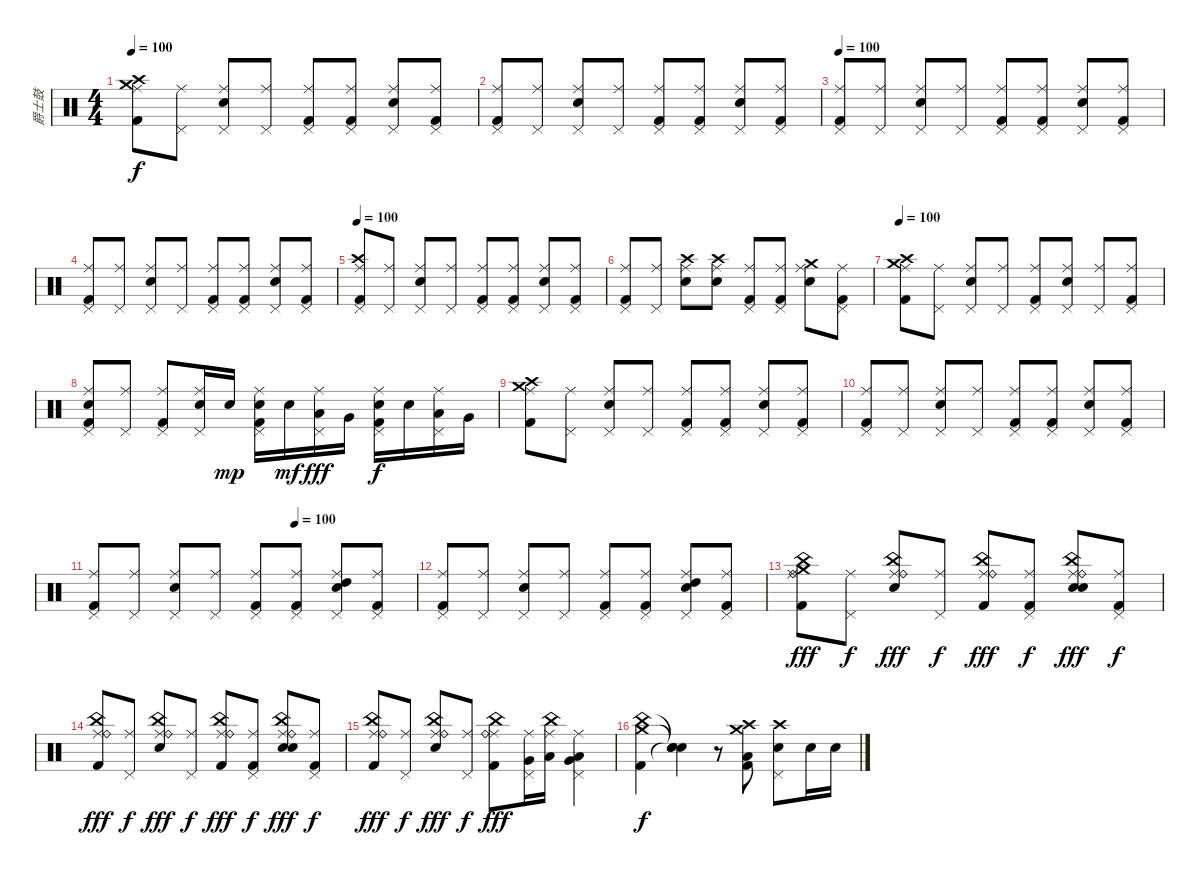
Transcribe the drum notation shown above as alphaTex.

\track ("爵士鼓" "爵士鼓") {instrument percussion}
\staff {score}
\articulation defaults
\ts (4 4)
\tempo 100
\clef neutral
\ks c
("Crash medium (hit)" "Ride (middle)" "Crash high (hit)" "Kick (hit) 2").8{dy f} ("Pedal Hi-Hat (hit)" "Ride (middle)").8 ("Pedal Hi-Hat (hit)" "Ride (middle)" "Snare (hit) 2").8 ("Pedal Hi-Hat (hit)" "Ride (middle)").8 ("Pedal Hi-Hat (hit)" "Ride (middle)" "Kick (hit) 2").8 ("Pedal Hi-Hat (hit)" "Ride (middle)" "Kick (hit) 2").8 ("Pedal Hi-Hat (hit)" "Ride (middle)" "Snare (hit) 2").8 ("Pedal Hi-Hat (hit)" "Ride (middle)" "Kick (hit) 2").8 |
("Pedal Hi-Hat (hit)" "Ride (middle)" "Kick (hit) 2").8 ("Pedal Hi-Hat (hit)" "Ride (middle)").8 ("Pedal Hi-Hat (hit)" "Ride (middle)" "Snare (hit) 2").8 ("Pedal Hi-Hat (hit)" "Ride (middle)").8 ("Pedal Hi-Hat (hit)" "Ride (middle)" "Kick (hit) 2").8 ("Pedal Hi-Hat (hit)" "Ride (middle)" "Kick (hit) 2").8 ("Pedal Hi-Hat (hit)" "Ride (middle)" "Snare (hit) 2").8 ("Pedal Hi-Hat (hit)" "Ride (middle)" "Kick (hit) 2").8 |
\tempo 100
("Pedal Hi-Hat (hit)" "Ride (middle)" "Kick (hit) 2").8 ("Pedal Hi-Hat (hit)" "Ride (middle)").8 ("Pedal Hi-Hat (hit)" "Ride (middle)" "Snare (hit) 2").8 ("Pedal Hi-Hat (hit)" "Ride (middle)").8 ("Pedal Hi-Hat (hit)" "Ride (middle)" "Kick (hit) 2").8 ("Pedal Hi-Hat (hit)" "Ride (middle)" "Kick (hit) 2").8 ("Pedal Hi-Hat (hit)" "Ride (middle)" "Snare (hit) 2").8 ("Pedal Hi-Hat (hit)" "Ride (middle)" "Kick (hit) 2").8 |
("Pedal Hi-Hat (hit)" "Ride (middle)" "Kick (hit) 2").8 ("Pedal Hi-Hat (hit)" "Ride (middle)").8 ("Pedal Hi-Hat (hit)" "Ride (middle)" "Snare (hit) 2").8 ("Pedal Hi-Hat (hit)" "Ride (middle)").8 ("Pedal Hi-Hat (hit)" "Ride (middle)" "Kick (hit) 2").8 ("Pedal Hi-Hat (hit)" "Ride (middle)" "Kick (hit) 2").8 ("Pedal Hi-Hat (hit)" "Ride (middle)" "Snare (hit) 2").8 ("Pedal Hi-Hat (hit)" "Ride (middle)" "Kick (hit) 2").8 |
\tempo 100
("Pedal Hi-Hat (hit)" "Ride (middle)" "Crash high (hit)" "Kick (hit) 2").8 ("Pedal Hi-Hat (hit)" "Ride (middle)").8 ("Pedal Hi-Hat (hit)" "Ride (middle)" "Snare (hit) 2").8 ("Pedal Hi-Hat (hit)" "Ride (middle)").8 ("Pedal Hi-Hat (hit)" "Ride (middle)" "Kick (hit) 2").8 ("Pedal Hi-Hat (hit)" "Ride (middle)" "Kick (hit) 2").8 ("Pedal Hi-Hat (hit)" "Ride (middle)" "Snare (hit) 2").8 ("Pedal Hi-Hat (hit)" "Ride (middle)" "Kick (hit) 2").8 |
("Pedal Hi-Hat (hit)" "Ride (middle)" "Kick (hit) 2").8 ("Pedal Hi-Hat (hit)" "Ride (middle)").8 ("Crash high (hit)" "Ride (middle)" "Snare (hit) 2").8 ("Crash high (hit)" "Ride (middle)" "Snare (hit) 2").8 ("Pedal Hi-Hat (hit)" "Ride (middle)" "Kick (hit) 2").8 ("Pedal Hi-Hat (hit)" "Ride (middle)" "Kick (hit) 2").8 ("Crash medium (hit)" "Ride (middle)" "Snare (hit) 2").8 ("Pedal Hi-Hat (hit)" "Ride (middle)" "Kick (hit) 2").8 |
\tempo 100
("Crash medium (hit)" "Ride (middle)" "Crash high (hit)" "Kick (hit) 2").8 ("Pedal Hi-Hat (hit)" "Ride (middle)").8 ("Pedal Hi-Hat (hit)" "Ride (middle)" "Snare (hit) 2").8 ("Pedal Hi-Hat (hit)" "Ride (middle)").8 ("Pedal Hi-Hat (hit)" "Ride (middle)" "Kick (hit) 2").8 ("Pedal Hi-Hat (hit)" "Ride (middle)" "Snare (hit) 2").8 ("Pedal Hi-Hat (hit)" "Ride (middle)").8 ("Pedal Hi-Hat (hit)" "Ride (middle)" "Kick (hit) 2").8 |
("Pedal Hi-Hat (hit)" "Ride (middle)" "Snare (hit) 2" "Kick (hit) 2").8 ("Pedal Hi-Hat (hit)" "Ride (middle)").8 ("Pedal Hi-Hat (hit)" "Ride (middle)" "Kick (hit) 2").8 ("Pedal Hi-Hat (hit)" "Ride (middle)" "Electric Snare (hit)").16 "Electric Snare (hit)".16{dy mp} ("Pedal Hi-Hat (hit)" "Ride (middle)" "Electric Snare (hit)" "Kick (hit) 2").16 "Electric Snare (hit)".16{dy mf} ("Pedal Hi-Hat (hit)" "Ride (middle)" "Low Tom (hit)").16{dy fff} "Very Low Tom (hit)".16 ("Pedal Hi-Hat (hit)" "Ride (middle)" "Electric Snare (hit)" "Kick (hit) 2").16{dy f} "Electric Snare (hit)".16 ("Pedal Hi-Hat (hit)" "Ride (middle)" "Low Tom (hit)").16 "Very Low Tom (hit)".16 |
("Crash medium (hit)" "Ride (middle)" "Crash high (hit)" "Kick (hit) 2").8 ("Pedal Hi-Hat (hit)" "Ride (middle)").8 ("Pedal Hi-Hat (hit)" "Ride (middle)" "Snare (hit) 2").8 ("Pedal Hi-Hat (hit)" "Ride (middle)").8 ("Pedal Hi-Hat (hit)" "Ride (middle)" "Kick (hit) 2").8 ("Pedal Hi-Hat (hit)" "Ride (middle)" "Kick (hit) 2").8 ("Pedal Hi-Hat (hit)" "Ride (middle)" "Snare (hit) 2").8 ("Pedal Hi-Hat (hit)" "Ride (middle)" "Kick (hit) 2").8 |
("Pedal Hi-Hat (hit)" "Ride (middle)" "Kick (hit) 2").8 ("Pedal Hi-Hat (hit)" "Ride (middle)").8 ("Pedal Hi-Hat (hit)" "Ride (middle)" "Snare (hit) 2").8 ("Pedal Hi-Hat (hit)" "Ride (middle)").8 ("Pedal Hi-Hat (hit)" "Ride (middle)" "Kick (hit) 2").8 ("Pedal Hi-Hat (hit)" "Ride (middle)" "Kick (hit) 2").8 ("Pedal Hi-Hat (hit)" "Ride (middle)" "Snare (hit) 2").8 ("Pedal Hi-Hat (hit)" "Ride (middle)" "Kick (hit) 2").8 |
\tempo (100 0.625)
("Pedal Hi-Hat (hit)" "Ride (middle)" "Kick (hit) 2").8 ("Pedal Hi-Hat (hit)" "Ride (middle)").8 ("Pedal Hi-Hat (hit)" "Ride (middle)" "Snare (hit) 2").8 ("Pedal Hi-Hat (hit)" "Ride (middle)").8 ("Pedal Hi-Hat (hit)" "Ride (middle)" "Kick (hit) 2").8 ("Pedal Hi-Hat (hit)" "Ride (middle)" "Kick (hit) 2").8 ("Pedal Hi-Hat (hit)" "Ride (middle)" "Snare (hit) 2" "High Tom (hit)").8 ("Pedal Hi-Hat (hit)" "Ride (middle)" "Kick (hit) 2").8 |
("Pedal Hi-Hat (hit)" "Ride (middle)" "Kick (hit) 2").8 ("Pedal Hi-Hat (hit)" "Ride (middle)").8 ("Pedal Hi-Hat (hit)" "Ride (middle)" "Snare (hit) 2").8 ("Pedal Hi-Hat (hit)" "Ride (middle)").8 ("Pedal Hi-Hat (hit)" "Ride (middle)" "Kick (hit) 2").8 ("Pedal Hi-Hat (hit)" "Ride (middle)" "Kick (hit) 2").8 ("Pedal Hi-Hat (hit)" "Ride (middle)" "Snare (hit) 2" "High Tom (hit)").8 ("Pedal Hi-Hat (hit)" "Ride (middle)" "Kick (hit) 2").8 |
("China (hit)" "Ride (middle)" "Ride (bell)" "Kick (hit) 2" "Crash medium (hit)").8{dy fff} ("Pedal Hi-Hat (hit)" "Ride (middle)").8{dy f} ("China (hit)" "Ride (middle)" "Snare (hit) 2" "Ride (bell)").8{dy fff} ("Pedal Hi-Hat (hit)" "Ride (middle)").8{dy f} ("China (hit)" "Ride (middle)" "Ride (bell)" "Kick (hit) 2").8{dy fff} ("Pedal Hi-Hat (hit)" "Ride (middle)" "Kick (hit) 2").8{dy f} ("China (hit)" "Ride (middle)" "Snare (hit) 2" "Snare (hit)" "Ride (bell)").8{dy fff} ("Pedal Hi-Hat (hit)" "Ride (middle)" "Kick (hit) 2").8{dy f} |
("China (hit)" "Ride (middle)" "Ride (bell)" "Kick (hit) 2").8{dy fff} ("Pedal Hi-Hat (hit)" "Ride (middle)").8{dy f} ("China (hit)" "Ride (middle)" "Snare (hit) 2" "Ride (bell)").8{dy fff} ("Pedal Hi-Hat (hit)" "Ride (middle)").8{dy f} ("China (hit)" "Ride (middle)" "Ride (bell)" "Kick (hit) 2").8{dy fff} ("Pedal Hi-Hat (hit)" "Ride (middle)" "Kick (hit) 2").8{dy f} ("China (hit)" "Ride (middle)" "Snare (hit) 2" "Snare (hit)" "Ride (bell)").8{dy fff} ("Pedal Hi-Hat (hit)" "Ride (middle)" "Kick (hit) 2").8{dy f} |
("China (hit)" "Ride (middle)" "Ride (bell)" "Kick (hit) 2").8{dy fff} ("Pedal Hi-Hat (hit)" "Ride (middle)").8{dy f} ("China (hit)" "Ride (middle)" "Snare (hit) 2" "Ride (bell)").8{dy fff} ("Pedal Hi-Hat (hit)" "Ride (middle)").8{dy f} ("China (hit)" "Ride (middle)" "Ride (bell)" "Kick (hit) 2").8{dy fff} ("Pedal Hi-Hat (hit)" "Ride (middle)" "Very Low Tom (hit)").16 ("China (hit)" "Ride (middle)" "Low Tom (hit)").16 ("Pedal Hi-Hat (hit)" "Ride (middle)" "Low Tom (hit)" "Very Low Tom (hit)").4 |
("China (hit)" "Crash medium (hit)" "Kick (hit) 2").4{dy f} ("Snare (hit)"{t} "Snare (hit)"{t} "Snare (hit)"{t}).4 r.8 ("Crash high (hit)" "Crash medium (hit)" "Low Tom (hit)" "Kick (hit) 2").8 ("Pedal Hi-Hat (hit)" "Crash high (hit)" "Electric Snare (hit)").8 "Electric Snare (hit)".16 "Electric Snare (hit)".16
